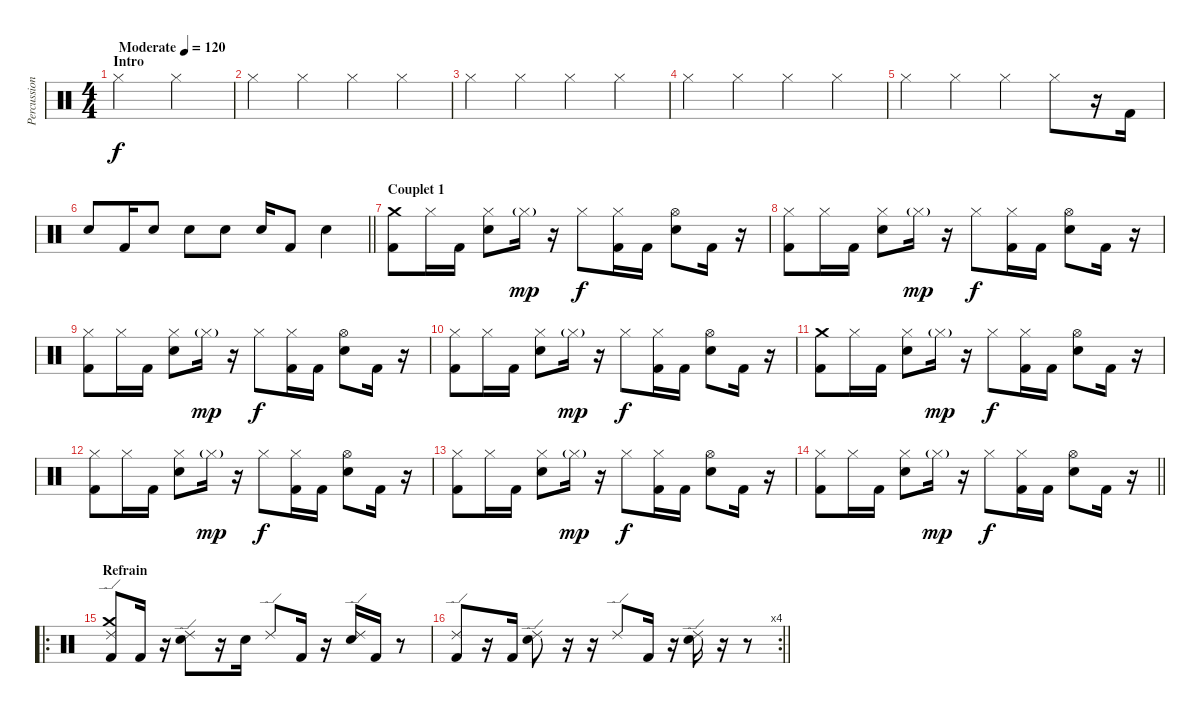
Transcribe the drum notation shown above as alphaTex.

\track ("Percussions" "Percussion") {instrument percussion}
\staff {score}
\articulation defaults
\ts (4 4)
\section ("" "Intro")
\tempo (120 "Moderate")
\clef neutral
\ks c "Hi-Hat (closed)".2{dy f} "Hi-Hat (closed)".2
|
"Hi-Hat (closed)".4 "Hi-Hat (closed)".4 "Hi-Hat (closed)".4 "Hi-Hat (closed)".4 |
"Hi-Hat (closed)".4 "Hi-Hat (closed)".4 "Hi-Hat (closed)".4 "Hi-Hat (closed)".4 |
"Hi-Hat (closed)".4 "Hi-Hat (closed)".4 "Hi-Hat (closed)".4 "Hi-Hat (closed)".4 |
"Hi-Hat (closed)".4 "Hi-Hat (closed)".4 "Hi-Hat (closed)".4 "Hi-Hat (closed)".8 r.16 "Kick (hit) 2".16 |
\barLineRight lightlight "Electric Snare (hit)".8 "Kick (hit) 2".16 "Electric Snare (hit)".8 "Electric Snare (hit)".8 "Electric Snare (hit)".8 "Electric Snare (hit)".16 "Kick (hit) 2".8 "Electric Snare (hit)".4
|
\section ("" "Couplet 1")
("Crash medium (hit)" "Kick (hit) 2").8 "Hi-Hat (closed)".16 "Kick (hit) 2".16 ("Hi-Hat (closed)" "Electric Snare (hit)").8 "Hi-Hat (closed)"{g}.16{dy mp} r.16 "Hi-Hat (closed)".8{dy f} ("Hi-Hat (closed)" "Kick (hit) 2").16 "Kick (hit) 2".16 ("Hi-Hat (open)" "Electric Snare (hit)").8 "Kick (hit) 2".16 r.16 |
("Hi-Hat (closed)" "Kick (hit) 2").8 "Hi-Hat (closed)".16 "Kick (hit) 2".16 ("Hi-Hat (closed)" "Electric Snare (hit)").8 "Hi-Hat (closed)"{g}.16{dy mp} r.16 "Hi-Hat (closed)".8{dy f} ("Hi-Hat (closed)" "Kick (hit) 2").16 "Kick (hit) 2".16 ("Hi-Hat (open)" "Electric Snare (hit)").8 "Kick (hit) 2".16 r.16 |
("Hi-Hat (closed)" "Kick (hit) 2").8 "Hi-Hat (closed)".16 "Kick (hit) 2".16 ("Hi-Hat (closed)" "Electric Snare (hit)").8 "Hi-Hat (closed)"{g}.16{dy mp} r.16 "Hi-Hat (closed)".8{dy f} ("Hi-Hat (closed)" "Kick (hit) 2").16 "Kick (hit) 2".16 ("Hi-Hat (open)" "Electric Snare (hit)").8 "Kick (hit) 2".16 r.16 |
("Hi-Hat (closed)" "Kick (hit) 2").8 "Hi-Hat (closed)".16 "Kick (hit) 2".16 ("Hi-Hat (closed)" "Electric Snare (hit)").8 "Hi-Hat (closed)"{g}.16{dy mp} r.16 "Hi-Hat (closed)".8{dy f} ("Hi-Hat (closed)" "Kick (hit) 2").16 "Kick (hit) 2".16 ("Hi-Hat (open)" "Electric Snare (hit)").8 "Kick (hit) 2".16 r.16 |
("Crash medium (hit)" "Kick (hit) 2").8 "Hi-Hat (closed)".16 "Kick (hit) 2".16 ("Hi-Hat (closed)" "Electric Snare (hit)").8 "Hi-Hat (closed)"{g}.16{dy mp} r.16 "Hi-Hat (closed)".8{dy f} ("Hi-Hat (closed)" "Kick (hit) 2").16 "Kick (hit) 2".16 ("Hi-Hat (open)" "Electric Snare (hit)").8 "Kick (hit) 2".16 r.16 |
("Hi-Hat (closed)" "Kick (hit) 2").8 "Hi-Hat (closed)".16 "Kick (hit) 2".16 ("Hi-Hat (closed)" "Electric Snare (hit)").8 "Hi-Hat (closed)"{g}.16{dy mp} r.16 "Hi-Hat (closed)".8{dy f} ("Hi-Hat (closed)" "Kick (hit) 2").16 "Kick (hit) 2".16 ("Hi-Hat (open)" "Electric Snare (hit)").8 "Kick (hit) 2".16 r.16 |
("Hi-Hat (closed)" "Kick (hit) 2").8 "Hi-Hat (closed)".16 "Kick (hit) 2".16 ("Hi-Hat (closed)" "Electric Snare (hit)").8 "Hi-Hat (closed)"{g}.16{dy mp} r.16 "Hi-Hat (closed)".8{dy f} ("Hi-Hat (closed)" "Kick (hit) 2").16 "Kick (hit) 2".16 ("Hi-Hat (open)" "Electric Snare (hit)").8 "Kick (hit) 2".16 r.16 |
\barLineRight lightlight
("Hi-Hat (closed)" "Kick (hit) 2").8 "Hi-Hat (closed)".16 "Kick (hit) 2".16 ("Hi-Hat (closed)" "Electric Snare (hit)").8 "Hi-Hat (closed)"{g}.16{dy mp} r.16 "Hi-Hat (closed)".8{dy f} ("Hi-Hat (closed)" "Kick (hit) 2").16 "Kick (hit) 2".16 ("Hi-Hat (open)" "Electric Snare (hit)").8 "Kick (hit) 2".16 r.16 |
\ro
\section ("" "Refrain")
("Crash medium (hit)" "Ride (edge) 2" "Kick (hit) 2").8 "Kick (hit) 2".16 r.16 ("Ride (edge) 2" "Electric Snare (hit)").8 r.16 "Electric Snare (hit)".16 "Ride (edge) 2".8 "Kick (hit) 2".16 r.16 ("Ride (edge) 2" "Electric Snare (hit)").16 "Kick (hit) 2".16 r.8 |
\rc 4
\barLineRight lightlight
("Ride (edge) 2" "Kick (hit) 2").8 r.16 "Kick (hit) 2".16 ("Ride (edge) 2" "Electric Snare (hit)").8 r.16 r.16 "Ride (edge) 2".8 "Kick (hit) 2".16 r.16 ("Ride (edge) 2" "Electric Snare (hit)").16 r.16 r.8
